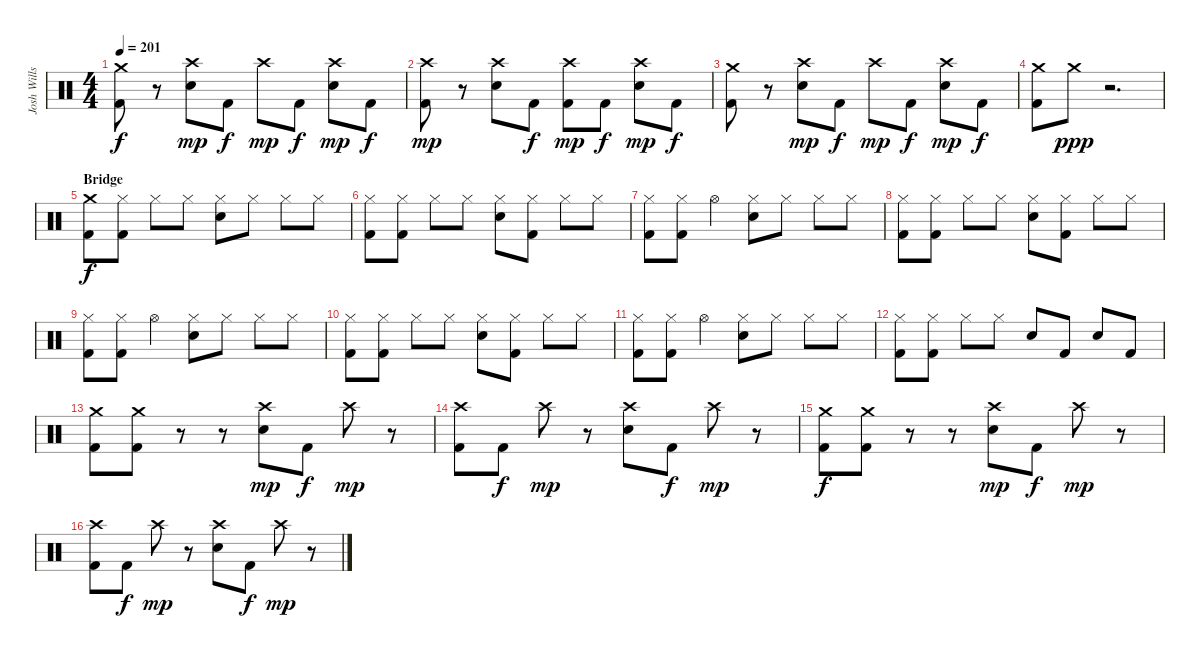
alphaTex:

\track ("Josh Wills" "Josh Wills") {instrument percussion}
\staff {score}
\articulation defaults
\ts (4 4)
\tempo 201
\clef neutral
\ks c
("Crash medium (hit)" "Kick (hit) 2").8{dy f} r.8 ("Crash high (hit)" "Snare (hit) 2").8{dy mp} "Kick (hit) 2".8{dy f} "Crash high (hit)".8{dy mp} "Kick (hit) 2".8{dy f} ("Crash high (hit)" "Snare (hit) 2").8{dy mp} "Kick (hit) 2".8{dy f} |
("Crash high (hit)" "Kick (hit) 2").8{dy mp} r.8 ("Crash high (hit)" "Snare (hit) 2").8 "Kick (hit) 2".8{dy f} ("Crash high (hit)" "Kick (hit) 2").8{dy mp} "Kick (hit) 2".8{dy f} ("Crash high (hit)" "Snare (hit) 2").8{dy mp} "Kick (hit) 2".8{dy f} |
("Crash medium (hit)" "Kick (hit) 2").8 r.8 ("Crash high (hit)" "Snare (hit) 2").8{dy mp} "Kick (hit) 2".8{dy f} "Crash high (hit)".8{dy mp} "Kick (hit) 2".8{dy f} ("Crash high (hit)" "Snare (hit) 2").8{dy mp} "Kick (hit) 2".8{dy f} |
("Crash medium (hit)" "Kick (hit) 2").8 "Crash medium (hit)".8{dy ppp} r.2{d} |
\section ("" "Bridge")
("Crash medium (hit)" "Kick (hit) 2").8{dy f} ("Hi-Hat (closed)" "Kick (hit) 2").8 "Hi-Hat (closed)".8 "Hi-Hat (closed)".8 ("Hi-Hat (closed)" "Snare (hit) 2").8 "Hi-Hat (closed)".8 "Hi-Hat (closed)".8 "Hi-Hat (closed)".8 |
("Hi-Hat (closed)" "Kick (hit) 2").8 ("Hi-Hat (closed)" "Kick (hit) 2").8 "Hi-Hat (closed)".8 "Hi-Hat (closed)".8 ("Hi-Hat (closed)" "Snare (hit) 2").8 ("Hi-Hat (closed)" "Kick (hit) 2").8 "Hi-Hat (closed)".8 "Hi-Hat (closed)".8 |
("Hi-Hat (closed)" "Kick (hit) 2").8 ("Hi-Hat (closed)" "Kick (hit) 2").8 "Hi-Hat (open)".4 ("Hi-Hat (closed)" "Snare (hit) 2").8 "Hi-Hat (closed)".8 "Hi-Hat (closed)".8 "Hi-Hat (closed)".8 |
("Hi-Hat (closed)" "Kick (hit) 2").8 ("Hi-Hat (closed)" "Kick (hit) 2").8 "Hi-Hat (closed)".8 "Hi-Hat (closed)".8 ("Hi-Hat (closed)" "Snare (hit) 2").8 ("Hi-Hat (closed)" "Kick (hit) 2").8 "Hi-Hat (closed)".8 "Hi-Hat (closed)".8 |
("Hi-Hat (closed)" "Kick (hit) 2").8 ("Hi-Hat (closed)" "Kick (hit) 2").8 "Hi-Hat (open)".4 ("Hi-Hat (closed)" "Snare (hit) 2").8 "Hi-Hat (closed)".8 "Hi-Hat (closed)".8 "Hi-Hat (closed)".8 |
("Hi-Hat (closed)" "Kick (hit) 2").8 ("Hi-Hat (closed)" "Kick (hit) 2").8 "Hi-Hat (closed)".8 "Hi-Hat (closed)".8 ("Hi-Hat (closed)" "Snare (hit) 2").8 ("Hi-Hat (closed)" "Kick (hit) 2").8 "Hi-Hat (closed)".8 "Hi-Hat (closed)".8 |
("Hi-Hat (closed)" "Kick (hit) 2").8 ("Hi-Hat (closed)" "Kick (hit) 2").8 "Hi-Hat (open)".4 ("Hi-Hat (closed)" "Snare (hit) 2").8 "Hi-Hat (closed)".8 "Hi-Hat (closed)".8 "Hi-Hat (closed)".8 |
("Hi-Hat (closed)" "Kick (hit) 2").8 ("Hi-Hat (closed)" "Kick (hit) 2").8 "Hi-Hat (closed)".8 "Hi-Hat (closed)".8 "Snare (hit) 2".8 "Kick (hit) 2".8 "Snare (hit) 2".8 "Kick (hit) 2".8 |
("Crash medium (hit)" "Kick (hit) 2").8 ("Crash medium (hit)" "Kick (hit) 2").8 r.8 r.8 ("Crash high (hit)" "Snare (hit) 2").8{dy mp} "Kick (hit) 2".8{dy f} "Crash high (hit)".8{dy mp} r.8 |
("Crash high (hit)" "Kick (hit) 2").8 "Kick (hit) 2".8{dy f} "Crash high (hit)".8{dy mp} r.8 ("Crash high (hit)" "Snare (hit) 2").8 "Kick (hit) 2".8{dy f} "Crash high (hit)".8{dy mp} r.8 |
("Crash medium (hit)" "Kick (hit) 2").8{dy f} ("Crash medium (hit)" "Kick (hit) 2").8 r.8 r.8 ("Crash high (hit)" "Snare (hit) 2").8{dy mp} "Kick (hit) 2".8{dy f} "Crash high (hit)".8{dy mp} r.8 |
("Crash high (hit)" "Kick (hit) 2").8 "Kick (hit) 2".8{dy f} "Crash high (hit)".8{dy mp} r.8 ("Crash high (hit)" "Snare (hit) 2").8 "Kick (hit) 2".8{dy f} "Crash high (hit)".8{dy mp} r.8
